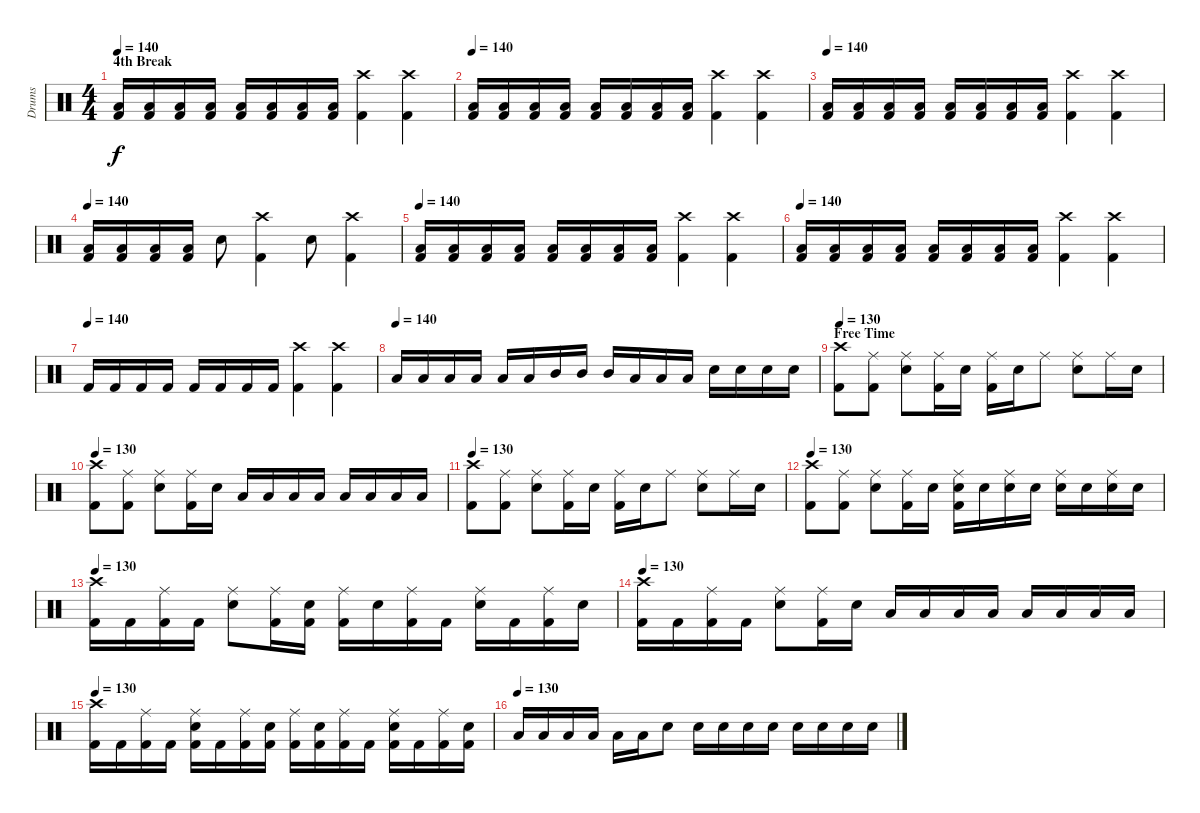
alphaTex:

\track ("Drums" "Drums") {instrument percussion}
\staff {score}
\articulation defaults
\ts (4 4)
\section ("" "4th Break")
\tempo 140
\clef neutral
\ks c
("Low Tom (hit)" "Kick (hit) 2").16{dy f} ("Low Tom (hit)" "Kick (hit) 2").16 ("Low Tom (hit)" "Kick (hit) 2").16 ("Low Tom (hit)" "Kick (hit) 2").16 ("Low Tom (hit)" "Kick (hit) 2").16 ("Low Tom (hit)" "Kick (hit) 2").16 ("Low Tom (hit)" "Kick (hit) 2").16 ("Low Tom (hit)" "Kick (hit) 2").16 ("Crash high (hit)" "Kick (hit) 2").4 ("Crash high (hit)" "Kick (hit) 2").4 |
\tempo 140
("Low Tom (hit)" "Kick (hit) 2").16 ("Low Tom (hit)" "Kick (hit) 2").16 ("Low Tom (hit)" "Kick (hit) 2").16 ("Low Tom (hit)" "Kick (hit) 2").16 ("Low Tom (hit)" "Kick (hit) 2").16 ("Low Tom (hit)" "Kick (hit) 2").16 ("Low Tom (hit)" "Kick (hit) 2").16 ("Low Tom (hit)" "Kick (hit) 2").16 ("Crash high (hit)" "Kick (hit) 2").4 ("Crash high (hit)" "Kick (hit) 2").4 |
\tempo 140
("Low Tom (hit)" "Kick (hit) 2").16 ("Low Tom (hit)" "Kick (hit) 2").16 ("Low Tom (hit)" "Kick (hit) 2").16 ("Low Tom (hit)" "Kick (hit) 2").16 ("Low Tom (hit)" "Kick (hit) 2").16 ("Low Tom (hit)" "Kick (hit) 2").16 ("Low Tom (hit)" "Kick (hit) 2").16 ("Low Tom (hit)" "Kick (hit) 2").16 ("Crash high (hit)" "Kick (hit) 2").4 ("Crash high (hit)" "Kick (hit) 2").4 |
\tempo 140
("Low Tom (hit)" "Kick (hit) 2").16 ("Low Tom (hit)" "Kick (hit) 2").16 ("Low Tom (hit)" "Kick (hit) 2").16 ("Low Tom (hit)" "Kick (hit) 2").16 "Snare (hit) 2".8 ("Crash high (hit)" "Kick (hit) 2").4 "Snare (hit) 2".8 ("Crash high (hit)" "Kick (hit) 2").4 |
\tempo 140
("Low Tom (hit)" "Kick (hit) 2").16 ("Low Tom (hit)" "Kick (hit) 2").16 ("Low Tom (hit)" "Kick (hit) 2").16 ("Low Tom (hit)" "Kick (hit) 2").16 ("Low Tom (hit)" "Kick (hit) 2").16 ("Low Tom (hit)" "Kick (hit) 2").16 ("Low Tom (hit)" "Kick (hit) 2").16 ("Low Tom (hit)" "Kick (hit) 2").16 ("Crash high (hit)" "Kick (hit) 2").4 ("Crash high (hit)" "Kick (hit) 2").4 |
\tempo 140
("Low Tom (hit)" "Kick (hit) 2").16 ("Low Tom (hit)" "Kick (hit) 2").16 ("Low Tom (hit)" "Kick (hit) 2").16 ("Low Tom (hit)" "Kick (hit) 2").16 ("Low Tom (hit)" "Kick (hit) 2").16 ("Low Tom (hit)" "Kick (hit) 2").16 ("Low Tom (hit)" "Kick (hit) 2").16 ("Low Tom (hit)" "Kick (hit) 2").16 ("Crash high (hit)" "Kick (hit) 2").4 ("Crash high (hit)" "Kick (hit) 2").4 |
\tempo (140)
"Kick (hit) 2".16 "Kick (hit) 2".16 "Kick (hit) 2".16 "Kick (hit) 2".16 "Kick (hit) 2".16 "Kick (hit) 2".16 "Kick (hit) 2".16 "Kick (hit) 2".16 ("Crash high (hit)" "Kick (hit) 2").4 ("Crash high (hit)" "Kick (hit) 2").4 |
\tempo (140)
"Low Tom (hit)".16 "Low Tom (hit)".16 "Low Tom (hit)".16 "Low Floor Tom (hit)".16 "Low Floor Tom (hit)".16 "Low Floor Tom (hit)".16 "Mid Tom (hit)".16 "Mid Tom (hit)".16 "Mid Tom (hit)".16 "Low Tom (hit)".16 "Low Tom (hit)".16 "Low Tom (hit)".16 "Snare (hit) 2".16 "Snare (hit) 2".16 "Snare (hit) 2".16 "Snare (hit) 2".16 |
\section ("" "Free Time")
\tempo 130
("Crash high (hit)" "Kick (hit) 2").8 ("Ride (middle)" "Kick (hit) 2").8 ("Ride (middle)" "Snare (hit) 2").8 ("Ride (middle)" "Kick (hit) 2").16 "Snare (hit) 2".16 ("Ride (middle)" "Kick (hit) 2").16 "Snare (hit) 2".16 "Ride (middle)".8 ("Ride (middle)" "Snare (hit) 2").8 "Ride (middle)".16 "Snare (hit) 2".16 |
\tempo 130
("Crash high (hit)" "Kick (hit) 2").8 ("Ride (middle)" "Kick (hit) 2").8 ("Ride (middle)" "Snare (hit) 2").8 ("Ride (middle)" "Kick (hit) 2").16 "Snare (hit) 2".16 "Low Tom (hit)".16 "Low Tom (hit)".16 "Low Tom (hit)".16 "Low Tom (hit)".16 "Low Floor Tom (hit)".16 "Low Floor Tom (hit)".16 "Low Floor Tom (hit)".16 "Low Floor Tom (hit)".16 |
\tempo 130
("Crash high (hit)" "Kick (hit) 2").8 ("Ride (middle)" "Kick (hit) 2").8 ("Ride (middle)" "Snare (hit) 2").8 ("Ride (middle)" "Kick (hit) 2").16 "Snare (hit) 2".16 ("Ride (middle)" "Kick (hit) 2").16 "Snare (hit) 2".16 "Ride (middle)".8 ("Ride (middle)" "Snare (hit) 2").8 "Ride (middle)".16 "Snare (hit) 2".16 |
\tempo 130
("Crash high (hit)" "Kick (hit) 2").8 ("Ride (middle)" "Kick (hit) 2").8 ("Ride (middle)" "Snare (hit) 2").8 ("Ride (middle)" "Kick (hit) 2").16 "Snare (hit) 2".16 ("Ride (middle)" "Snare (hit) 2" "Kick (hit) 2").16 "Snare (hit) 2".16 ("Ride (middle)" "Snare (hit) 2").16 "Snare (hit) 2".16 ("Ride (middle)" "Snare (hit) 2").16 "Snare (hit) 2".16 ("Ride (middle)" "Snare (hit) 2").16 "Snare (hit) 2".16 |
\tempo 130
("Crash high (hit)" "Kick (hit) 2").16 "Kick (hit) 2".16 ("Ride (middle)" "Kick (hit) 2").16 "Kick (hit) 2".16 ("Ride (middle)" "Snare (hit) 2").8 ("Ride (middle)" "Kick (hit) 2").16 ("Snare (hit) 2" "Kick (hit) 2").16 ("Ride (middle)" "Kick (hit) 2").16 "Snare (hit) 2".16 ("Ride (middle)" "Kick (hit) 2").16 "Kick (hit) 2".16 ("Ride (middle)" "Snare (hit) 2").16 "Kick (hit) 2".16 ("Ride (middle)" "Kick (hit) 2").16 "Snare (hit) 2".16 |
\tempo 130
("Crash high (hit)" "Kick (hit) 2").16 "Kick (hit) 2".16 ("Ride (middle)" "Kick (hit) 2").16 "Kick (hit) 2".16 ("Ride (middle)" "Snare (hit) 2").8 ("Ride (middle)" "Kick (hit) 2").16 "Snare (hit) 2".16 "Low Tom (hit)".16 "Low Tom (hit)".16 "Low Tom (hit)".16 "Low Tom (hit)".16 "Low Floor Tom (hit)".16 "Low Floor Tom (hit)".16 "Low Floor Tom (hit)".16 "Low Floor Tom (hit)".16 |
\tempo 130
("Crash high (hit)" "Kick (hit) 2").16 "Kick (hit) 2".16 ("Ride (middle)" "Kick (hit) 2").16 "Kick (hit) 2".16 ("Ride (middle)" "Snare (hit) 2" "Kick (hit) 2").16 "Kick (hit) 2".16 ("Ride (middle)" "Kick (hit) 2").16 ("Snare (hit) 2" "Kick (hit) 2").16 ("Ride (middle)" "Kick (hit) 2").16 ("Snare (hit) 2" "Kick (hit) 2").16 ("Ride (middle)" "Kick (hit) 2").16 "Kick (hit) 2".16 ("Ride (middle)" "Snare (hit) 2" "Kick (hit) 2").16 "Kick (hit) 2".16 ("Ride (middle)" "Kick (hit) 2").16 ("Snare (hit) 2" "Kick (hit) 2").16 |
\tempo (130)
"Low Tom (hit)".16 "Low Tom (hit)".16 "Low Tom (hit)".16 "Low Floor Tom (hit)".16 "Low Floor Tom (hit)".16 "Low Floor Tom (hit)".16 "Snare (hit) 2".8 "Snare (hit) 2".16 "Snare (hit) 2".16 "Snare (hit) 2".16 "Snare (hit) 2".16 "Snare (hit) 2".16 "Snare (hit) 2".16 "Snare (hit) 2".16 "Snare (hit) 2".16
